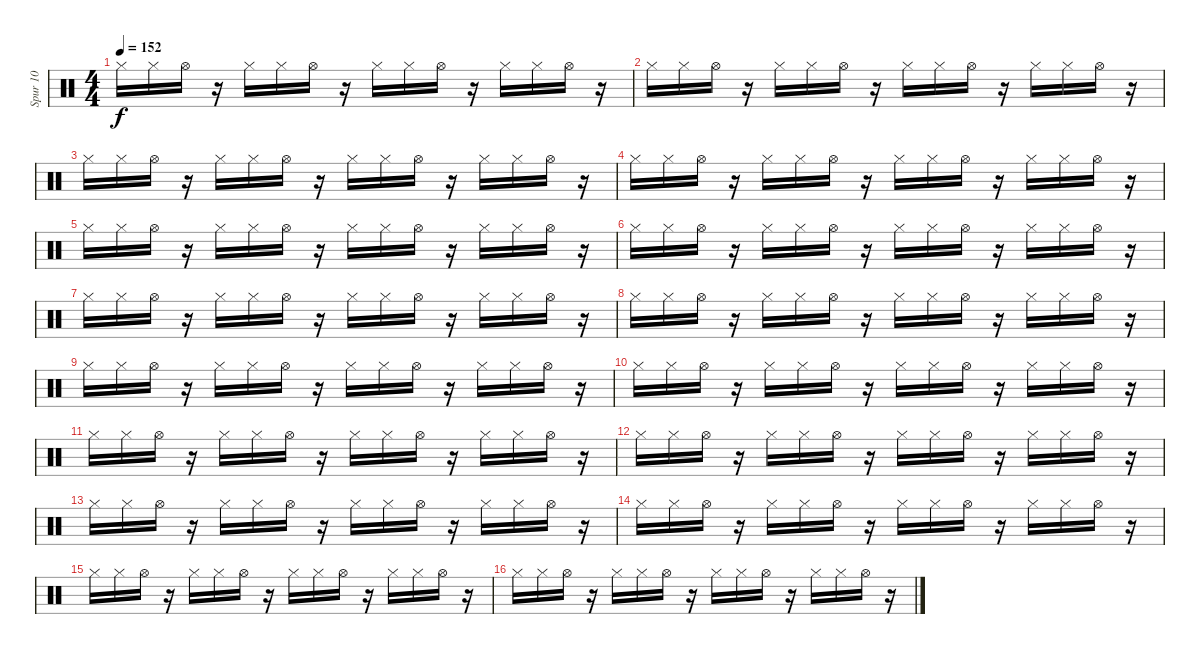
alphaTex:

\track ("Spur 10" "Spur 10") {instrument percussion}
\staff {score}
\articulation defaults
\ts (4 4)
\tempo 152
\clef neutral
\ks c "Hi-Hat (closed)".16{dy f} "Hi-Hat (closed)".16 "Hi-Hat (open)".16
r.16 "Hi-Hat (closed)".16 "Hi-Hat (closed)".16 "Hi-Hat (open)".16 r.16 "Hi-Hat (closed)".16 "Hi-Hat (closed)".16 "Hi-Hat (open)".16 r.16 "Hi-Hat (closed)".16 "Hi-Hat (closed)".16 "Hi-Hat (open)".16 r.16 |
"Hi-Hat (closed)".16 "Hi-Hat (closed)".16 "Hi-Hat (open)".16 r.16 "Hi-Hat (closed)".16 "Hi-Hat (closed)".16 "Hi-Hat (open)".16 r.16 "Hi-Hat (closed)".16 "Hi-Hat (closed)".16 "Hi-Hat (open)".16 r.16 "Hi-Hat (closed)".16 "Hi-Hat (closed)".16 "Hi-Hat (open)".16 r.16 |
"Hi-Hat (closed)".16 "Hi-Hat (closed)".16 "Hi-Hat (open)".16 r.16 "Hi-Hat (closed)".16 "Hi-Hat (closed)".16 "Hi-Hat (open)".16 r.16 "Hi-Hat (closed)".16 "Hi-Hat (closed)".16 "Hi-Hat (open)".16 r.16 "Hi-Hat (closed)".16 "Hi-Hat (closed)".16 "Hi-Hat (open)".16 r.16 |
"Hi-Hat (closed)".16 "Hi-Hat (closed)".16 "Hi-Hat (open)".16 r.16 "Hi-Hat (closed)".16 "Hi-Hat (closed)".16 "Hi-Hat (open)".16 r.16 "Hi-Hat (closed)".16 "Hi-Hat (closed)".16 "Hi-Hat (open)".16 r.16 "Hi-Hat (closed)".16 "Hi-Hat (closed)".16 "Hi-Hat (open)".16 r.16 |
"Hi-Hat (closed)".16 "Hi-Hat (closed)".16 "Hi-Hat (open)".16 r.16 "Hi-Hat (closed)".16 "Hi-Hat (closed)".16 "Hi-Hat (open)".16 r.16 "Hi-Hat (closed)".16 "Hi-Hat (closed)".16 "Hi-Hat (open)".16 r.16 "Hi-Hat (closed)".16 "Hi-Hat (closed)".16 "Hi-Hat (open)".16 r.16 |
"Hi-Hat (closed)".16 "Hi-Hat (closed)".16 "Hi-Hat (open)".16 r.16 "Hi-Hat (closed)".16 "Hi-Hat (closed)".16 "Hi-Hat (open)".16 r.16 "Hi-Hat (closed)".16 "Hi-Hat (closed)".16 "Hi-Hat (open)".16 r.16 "Hi-Hat (closed)".16 "Hi-Hat (closed)".16 "Hi-Hat (open)".16 r.16 |
"Hi-Hat (closed)".16 "Hi-Hat (closed)".16 "Hi-Hat (open)".16 r.16 "Hi-Hat (closed)".16 "Hi-Hat (closed)".16 "Hi-Hat (open)".16 r.16 "Hi-Hat (closed)".16 "Hi-Hat (closed)".16 "Hi-Hat (open)".16 r.16 "Hi-Hat (closed)".16 "Hi-Hat (closed)".16 "Hi-Hat (open)".16 r.16 |
"Hi-Hat (closed)".16 "Hi-Hat (closed)".16 "Hi-Hat (open)".16 r.16 "Hi-Hat (closed)".16 "Hi-Hat (closed)".16 "Hi-Hat (open)".16 r.16 "Hi-Hat (closed)".16 "Hi-Hat (closed)".16 "Hi-Hat (open)".16 r.16 "Hi-Hat (closed)".16 "Hi-Hat (closed)".16 "Hi-Hat (open)".16 r.16 |
"Hi-Hat (closed)".16 "Hi-Hat (closed)".16 "Hi-Hat (open)".16 r.16 "Hi-Hat (closed)".16 "Hi-Hat (closed)".16 "Hi-Hat (open)".16 r.16 "Hi-Hat (closed)".16 "Hi-Hat (closed)".16 "Hi-Hat (open)".16 r.16 "Hi-Hat (closed)".16 "Hi-Hat (closed)".16 "Hi-Hat (open)".16 r.16 |
"Hi-Hat (closed)".16 "Hi-Hat (closed)".16 "Hi-Hat (open)".16 r.16 "Hi-Hat (closed)".16 "Hi-Hat (closed)".16 "Hi-Hat (open)".16 r.16 "Hi-Hat (closed)".16 "Hi-Hat (closed)".16 "Hi-Hat (open)".16 r.16 "Hi-Hat (closed)".16 "Hi-Hat (closed)".16 "Hi-Hat (open)".16 r.16 |
"Hi-Hat (closed)".16 "Hi-Hat (closed)".16 "Hi-Hat (open)".16 r.16 "Hi-Hat (closed)".16 "Hi-Hat (closed)".16 "Hi-Hat (open)".16 r.16 "Hi-Hat (closed)".16 "Hi-Hat (closed)".16 "Hi-Hat (open)".16 r.16 "Hi-Hat (closed)".16 "Hi-Hat (closed)".16 "Hi-Hat (open)".16 r.16 |
"Hi-Hat (closed)".16 "Hi-Hat (closed)".16 "Hi-Hat (open)".16 r.16 "Hi-Hat (closed)".16 "Hi-Hat (closed)".16 "Hi-Hat (open)".16 r.16 "Hi-Hat (closed)".16 "Hi-Hat (closed)".16 "Hi-Hat (open)".16 r.16 "Hi-Hat (closed)".16 "Hi-Hat (closed)".16 "Hi-Hat (open)".16 r.16 |
"Hi-Hat (closed)".16 "Hi-Hat (closed)".16 "Hi-Hat (open)".16 r.16 "Hi-Hat (closed)".16 "Hi-Hat (closed)".16 "Hi-Hat (open)".16 r.16 "Hi-Hat (closed)".16 "Hi-Hat (closed)".16 "Hi-Hat (open)".16 r.16 "Hi-Hat (closed)".16 "Hi-Hat (closed)".16 "Hi-Hat (open)".16 r.16 |
"Hi-Hat (closed)".16 "Hi-Hat (closed)".16 "Hi-Hat (open)".16 r.16 "Hi-Hat (closed)".16 "Hi-Hat (closed)".16 "Hi-Hat (open)".16 r.16 "Hi-Hat (closed)".16 "Hi-Hat (closed)".16 "Hi-Hat (open)".16 r.16 "Hi-Hat (closed)".16 "Hi-Hat (closed)".16 "Hi-Hat (open)".16 r.16 |
"Hi-Hat (closed)".16 "Hi-Hat (closed)".16 "Hi-Hat (open)".16 r.16 "Hi-Hat (closed)".16 "Hi-Hat (closed)".16 "Hi-Hat (open)".16 r.16 "Hi-Hat (closed)".16 "Hi-Hat (closed)".16 "Hi-Hat (open)".16 r.16 "Hi-Hat (closed)".16 "Hi-Hat (closed)".16 "Hi-Hat (open)".16 r.16 |
"Hi-Hat (closed)".16 "Hi-Hat (closed)".16 "Hi-Hat (open)".16 r.16 "Hi-Hat (closed)".16 "Hi-Hat (closed)".16 "Hi-Hat (open)".16 r.16 "Hi-Hat (closed)".16 "Hi-Hat (closed)".16 "Hi-Hat (open)".16 r.16 "Hi-Hat (closed)".16 "Hi-Hat (closed)".16 "Hi-Hat (open)".16 r.16
